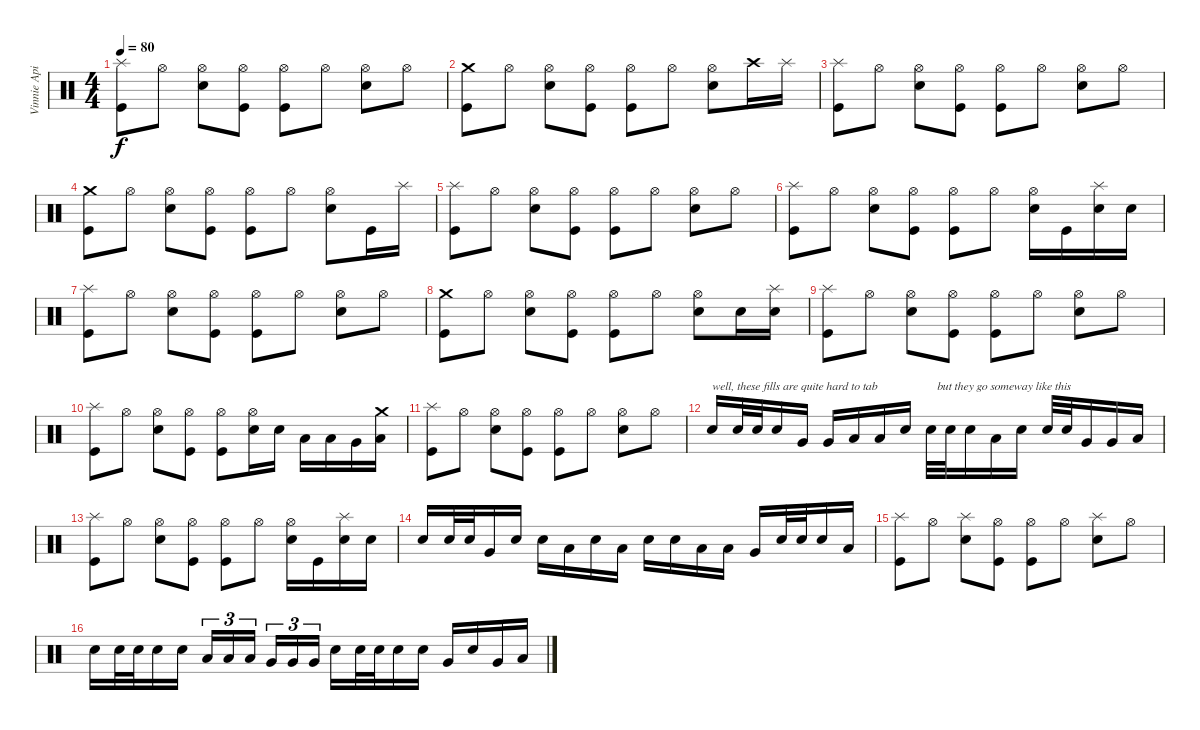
\track ("Vinnie Apice" "Vinnie Api") {instrument percussion}
\staff {score}
\articulation defaults
\ts (4 4)
\tempo 80
\clef neutral
\ks c
("Splash (hit)" "Kick (hit)").8{dy f} "Hi-Hat (open)".8 ("Hi-Hat (open)" "Snare (hit) 2").8 ("Hi-Hat (open)" "Kick (hit)").8 ("Hi-Hat (open)" "Kick (hit)").8 "Hi-Hat (open)".8 ("Hi-Hat (open)" "Snare (hit) 2").8 "Hi-Hat (open)".8 |
("Crash medium (hit)" "Kick (hit)").8 "Hi-Hat (open)".8 ("Hi-Hat (open)" "Snare (hit) 2").8 ("Hi-Hat (open)" "Kick (hit)").8 ("Hi-Hat (open)" "Kick (hit)").8 "Hi-Hat (open)".8 ("Hi-Hat (open)" "Snare (hit) 2").8 "Crash high (hit)".16 "Splash (hit)".16 |
("Splash (hit)" "Kick (hit)").8 "Hi-Hat (open)".8 ("Hi-Hat (open)" "Snare (hit) 2").8 ("Hi-Hat (open)" "Kick (hit)").8 ("Hi-Hat (open)" "Kick (hit)").8 "Hi-Hat (open)".8 ("Hi-Hat (open)" "Snare (hit) 2").8 "Hi-Hat (open)".8 |
("Crash medium (hit)" "Kick (hit)").8 "Hi-Hat (open)".8 ("Hi-Hat (open)" "Snare (hit) 2").8 ("Hi-Hat (open)" "Kick (hit)").8 ("Hi-Hat (open)" "Kick (hit)").8 "Hi-Hat (open)".8 ("Hi-Hat (open)" "Snare (hit) 2").8 "Kick (hit)".16 "Splash (hit)".16 |
("Splash (hit)" "Kick (hit)").8 "Hi-Hat (open)".8 ("Hi-Hat (open)" "Snare (hit) 2").8 ("Hi-Hat (open)" "Kick (hit)").8 ("Hi-Hat (open)" "Kick (hit)").8 "Hi-Hat (open)".8 ("Hi-Hat (open)" "Snare (hit) 2").8 "Hi-Hat (open)".8 |
("Splash (hit)" "Kick (hit)").8 "Hi-Hat (open)".8 ("Hi-Hat (open)" "Snare (hit) 2").8 ("Hi-Hat (open)" "Kick (hit)").8 ("Hi-Hat (open)" "Kick (hit)").8 "Hi-Hat (open)".8 ("Hi-Hat (open)" "Snare (hit) 2").16 "Kick (hit)".16 ("Splash (hit)" "Snare (hit) 2").16 "Snare (hit) 2".16 |
("Splash (hit)" "Kick (hit)").8 "Hi-Hat (open)".8 ("Hi-Hat (open)" "Snare (hit) 2").8 ("Hi-Hat (open)" "Kick (hit)").8 ("Hi-Hat (open)" "Kick (hit)").8 "Hi-Hat (open)".8 ("Hi-Hat (open)" "Snare (hit) 2").8 "Hi-Hat (open)".8 |
("Crash medium (hit)" "Kick (hit)").8 "Hi-Hat (open)".8 ("Hi-Hat (open)" "Snare (hit) 2").8 ("Hi-Hat (open)" "Kick (hit)").8 ("Hi-Hat (open)" "Kick (hit)").8 "Hi-Hat (open)".8 ("Hi-Hat (open)" "Snare (hit) 2").8 "Snare (hit) 2".16 ("Splash (hit)" "Snare (hit) 2").16 |
("Splash (hit)" "Kick (hit)").8 "Hi-Hat (open)".8 ("Hi-Hat (open)" "Snare (hit) 2").8 ("Hi-Hat (open)" "Kick (hit)").8 ("Hi-Hat (open)" "Kick (hit)").8 "Hi-Hat (open)".8 ("Hi-Hat (open)" "Snare (hit) 2").8 "Hi-Hat (open)".8 |
("Splash (hit)" "Kick (hit)").8 "Hi-Hat (open)".8 ("Hi-Hat (open)" "Snare (hit) 2").8 ("Hi-Hat (open)" "Kick (hit)").8 ("Hi-Hat (open)" "Kick (hit)").8 ("Hi-Hat (open)" "Snare (hit) 2").16 "Snare (hit) 2".16 "Low Tom (hit)".16 "Low Tom (hit)".16 "Very Low Tom (hit)".16 ("Crash medium (hit)" "Low Floor Tom (hit)").16 |
("Splash (hit)" "Kick (hit)").8 "Hi-Hat (open)".8 ("Hi-Hat (open)" "Snare (hit) 2").8 ("Hi-Hat (open)" "Kick (hit)").8 ("Hi-Hat (open)" "Kick (hit)").8 "Hi-Hat (open)".8 ("Hi-Hat (open)" "Snare (hit) 2").8 "Hi-Hat (open)".8 |
"Snare (hit) 2".16{txt "well, these fills are quite hard to tab"} "Snare (hit) 2".32 "Snare (hit) 2".32 "Snare (hit) 2".16 "Very Low Tom (hit)".16 "Very Low Tom (hit)".16 "Low Floor Tom (hit)".16 "Low Floor Tom (hit)".16 "Snare (hit) 2".16 "Snare (hit) 2".32{txt "  but they go someway like this"} "Snare (hit) 2".32 "Snare (hit) 2".16 "Low Tom (hit)".16 "Snare (hit) 2".16 "Snare (hit) 2".32 "Snare (hit) 2".32 "Very Low Tom (hit)".16 "Very Low Tom (hit)".16 "Low Floor Tom (hit)".16 |
("Splash (hit)" "Kick (hit)").8 "Hi-Hat (open)".8 ("Hi-Hat (open)" "Snare (hit) 2").8 ("Hi-Hat (open)" "Kick (hit)").8 ("Hi-Hat (open)" "Kick (hit)").8 "Hi-Hat (open)".8 ("Hi-Hat (open)" "Snare (hit) 2").16 "Kick (hit)".16 ("Splash (hit)" "Snare (hit) 2").16 "Snare (hit) 2".16 |
"Snare (hit) 2".16 "Snare (hit) 2".32 "Snare (hit) 2".32 "Very Low Tom (hit)".16 "Snare (hit) 2".16 "Snare (hit) 2".16 "Low Floor Tom (hit)".16 "Snare (hit) 2".16 "Low Tom (hit)".16 "Snare (hit) 2".16 "Snare (hit) 2".16 "Low Tom (hit)".16 "Low Tom (hit)".16 "Very Low Tom (hit)".16 "Snare (hit) 2".32 "Snare (hit) 2".32 "Snare (hit) 2".16 "Low Floor Tom (hit)".16 |
("Splash (hit)" "Kick (hit)").8 "Hi-Hat (open)".8 ("Splash (hit)" "Snare (hit) 2").8 ("Hi-Hat (open)" "Kick (hit)").8 ("Hi-Hat (open)" "Kick (hit)").8 "Hi-Hat (open)".8 ("Splash (hit)" "Snare (hit) 2").8 "Hi-Hat (open)".8 |
"Snare (hit) 2".16 "Snare (hit) 2".32 "Snare (hit) 2".32 "Snare (hit) 2".16 "Snare (hit) 2".16 "Low Tom (hit)".16{tu (3 2)} "Low Tom (hit)".16{tu (3 2)} "Low Tom (hit)".16{tu (3 2) beam splitsecondary} "Very Low Tom (hit)".16{tu (3 2)} "Very Low Tom (hit)".16{tu (3 2)} "Very Low Tom (hit)".16{tu (3 2)} "Snare (hit) 2".16 "Snare (hit) 2".32 "Snare (hit) 2".32 "Snare (hit) 2".16 "Snare (hit) 2".16 "Very Low Tom (hit)".16 "Snare (hit) 2".16 "Very Low Tom (hit)".16 "Low Floor Tom (hit)".16
